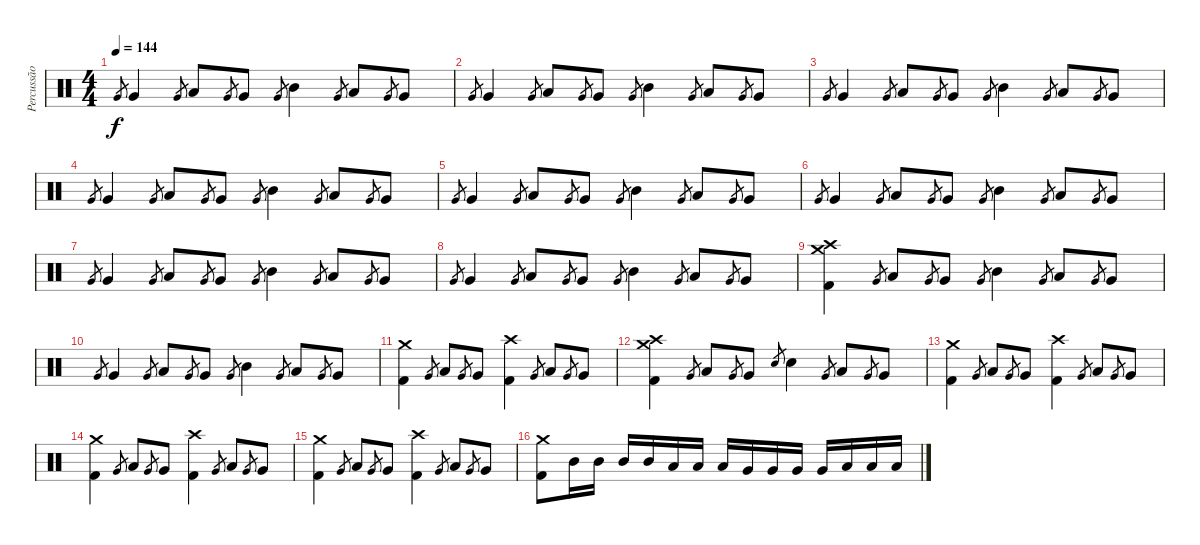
\track ("Percussão" "Percussão") {instrument percussion}
\staff {score}
\articulation defaults
\ts (4 4)
\tempo 144
\clef neutral
\ks c "Very Low Tom (hit)".8{gr dy f} "Very Low Tom (hit)".4 "Very Low Tom (hit)".8{gr} "Low Tom (hit)".8 "Very Low Tom (hit)".8{gr} "Very Low Tom (hit)".8 "Very Low Tom (hit)".8{gr} "Mid Tom (hit)".4 "Very Low Tom (hit)".8{gr} "Low Tom (hit)".8 "Very Low Tom (hit)".8{gr} "Very Low Tom (hit)".8
|
"Very Low Tom (hit)".8{gr} "Very Low Tom (hit)".4 "Very Low Tom (hit)".8{gr} "Low Tom (hit)".8 "Very Low Tom (hit)".8{gr} "Very Low Tom (hit)".8 "Very Low Tom (hit)".8{gr} "Mid Tom (hit)".4 "Very Low Tom (hit)".8{gr} "Low Tom (hit)".8 "Very Low Tom (hit)".8{gr} "Very Low Tom (hit)".8 |
"Very Low Tom (hit)".8{gr} "Very Low Tom (hit)".4 "Very Low Tom (hit)".8{gr} "Low Tom (hit)".8 "Very Low Tom (hit)".8{gr} "Very Low Tom (hit)".8 "Very Low Tom (hit)".8{gr} "Mid Tom (hit)".4 "Very Low Tom (hit)".8{gr} "Low Tom (hit)".8 "Very Low Tom (hit)".8{gr} "Very Low Tom (hit)".8 |
"Very Low Tom (hit)".8{gr} "Very Low Tom (hit)".4 "Very Low Tom (hit)".8{gr} "Low Tom (hit)".8 "Very Low Tom (hit)".8{gr} "Very Low Tom (hit)".8 "Very Low Tom (hit)".8{gr} "Mid Tom (hit)".4 "Very Low Tom (hit)".8{gr} "Low Tom (hit)".8 "Very Low Tom (hit)".8{gr} "Very Low Tom (hit)".8 |
"Very Low Tom (hit)".8{gr} "Very Low Tom (hit)".4 "Very Low Tom (hit)".8{gr} "Low Tom (hit)".8 "Very Low Tom (hit)".8{gr} "Very Low Tom (hit)".8 "Very Low Tom (hit)".8{gr} "Mid Tom (hit)".4 "Very Low Tom (hit)".8{gr} "Low Tom (hit)".8 "Very Low Tom (hit)".8{gr} "Very Low Tom (hit)".8 |
"Very Low Tom (hit)".8{gr} "Very Low Tom (hit)".4 "Very Low Tom (hit)".8{gr} "Low Tom (hit)".8 "Very Low Tom (hit)".8{gr} "Very Low Tom (hit)".8 "Very Low Tom (hit)".8{gr} "Mid Tom (hit)".4 "Very Low Tom (hit)".8{gr} "Low Tom (hit)".8 "Very Low Tom (hit)".8{gr} "Very Low Tom (hit)".8 |
"Very Low Tom (hit)".8{gr} "Very Low Tom (hit)".4 "Very Low Tom (hit)".8{gr} "Low Tom (hit)".8 "Very Low Tom (hit)".8{gr} "Very Low Tom (hit)".8 "Very Low Tom (hit)".8{gr} "Mid Tom (hit)".4 "Very Low Tom (hit)".8{gr} "Low Tom (hit)".8 "Very Low Tom (hit)".8{gr} "Very Low Tom (hit)".8 |
"Very Low Tom (hit)".8{gr} "Very Low Tom (hit)".4 "Very Low Tom (hit)".8{gr} "Low Tom (hit)".8 "Very Low Tom (hit)".8{gr} "Very Low Tom (hit)".8 "Very Low Tom (hit)".8{gr} "Mid Tom (hit)".4 "Very Low Tom (hit)".8{gr} "Low Tom (hit)".8 "Very Low Tom (hit)".8{gr} "Very Low Tom (hit)".8 |
("Crash medium (hit)" "Crash high (hit)" "Kick (hit) 2").4 "Very Low Tom (hit)".8{gr} "Low Tom (hit)".8 "Very Low Tom (hit)".8{gr} "Very Low Tom (hit)".8 "Very Low Tom (hit)".8{gr} "Mid Tom (hit)".4 "Very Low Tom (hit)".8{gr} "Low Tom (hit)".8 "Very Low Tom (hit)".8{gr} "Very Low Tom (hit)".8 |
"Very Low Tom (hit)".8{gr} "Very Low Tom (hit)".4 "Very Low Tom (hit)".8{gr} "Low Tom (hit)".8 "Very Low Tom (hit)".8{gr} "Very Low Tom (hit)".8 "Very Low Tom (hit)".8{gr} "Mid Tom (hit)".4 "Very Low Tom (hit)".8{gr} "Low Tom (hit)".8 "Very Low Tom (hit)".8{gr} "Very Low Tom (hit)".8 |
("Crash medium (hit)" "Kick (hit) 2").4 "Very Low Tom (hit)".8{gr} "Low Tom (hit)".8 "Very Low Tom (hit)".8{gr} "Very Low Tom (hit)".8 ("Crash high (hit)" "Kick (hit) 2").4 "Very Low Tom (hit)".8{gr} "Low Tom (hit)".8 "Very Low Tom (hit)".8{gr} "Very Low Tom (hit)".8 |
("Crash medium (hit)" "Crash high (hit)" "Kick (hit) 2").4 "Very Low Tom (hit)".8{gr} "Low Tom (hit)".8 "Very Low Tom (hit)".8{gr} "Very Low Tom (hit)".8 "Electric Snare (hit)".8{gr} "Electric Snare (hit)".4 "Very Low Tom (hit)".8{gr} "Low Tom (hit)".8 "Very Low Tom (hit)".8{gr} "Very Low Tom (hit)".8 |
("Crash medium (hit)" "Kick (hit) 2").4 "Very Low Tom (hit)".8{gr} "Low Tom (hit)".8 "Very Low Tom (hit)".8{gr} "Very Low Tom (hit)".8 ("Crash high (hit)" "Kick (hit) 2").4 "Very Low Tom (hit)".8{gr} "Low Tom (hit)".8 "Very Low Tom (hit)".8{gr} "Very Low Tom (hit)".8 |
("Crash medium (hit)" "Kick (hit) 2").4 "Very Low Tom (hit)".8{gr} "Low Tom (hit)".8 "Very Low Tom (hit)".8{gr} "Very Low Tom (hit)".8 ("Crash high (hit)" "Kick (hit) 2").4 "Very Low Tom (hit)".8{gr} "Low Tom (hit)".8 "Very Low Tom (hit)".8{gr} "Very Low Tom (hit)".8 |
("Crash medium (hit)" "Kick (hit) 2").4 "Very Low Tom (hit)".8{gr} "Low Tom (hit)".8 "Very Low Tom (hit)".8{gr} "Very Low Tom (hit)".8 ("Crash high (hit)" "Kick (hit) 2").4 "Very Low Tom (hit)".8{gr} "Low Tom (hit)".8 "Very Low Tom (hit)".8{gr} "Very Low Tom (hit)".8 |
("Crash medium (hit)" "Kick (hit) 2").8 "Mid Tom (hit)".16 "Mid Tom (hit)".16 "Mid Tom (hit)".16 "Mid Tom (hit)".16 "Low Tom (hit)".16 "Low Tom (hit)".16 "Low Tom (hit)".16 "Very Low Tom (hit)".16 "Very Low Tom (hit)".16 "Very Low Tom (hit)".16 "Very Low Tom (hit)".16 "Low Floor Tom (hit)".16 "Low Floor Tom (hit)".16 "Low Floor Tom (hit)".16
